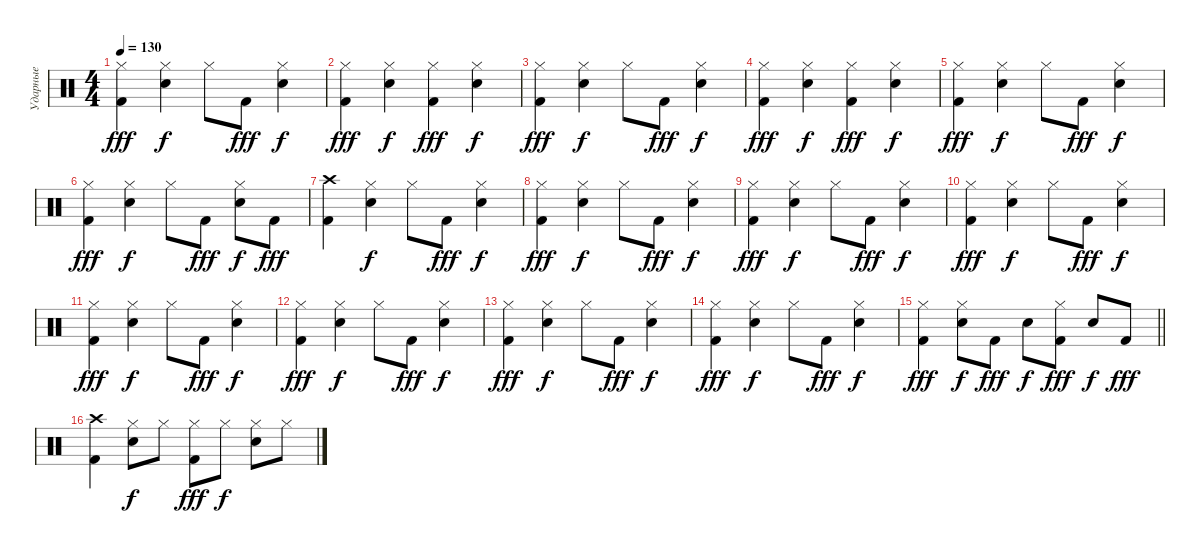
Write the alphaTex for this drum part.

\track ("Ударные" "Ударные") {instrument percussion}
\staff {score}
\articulation defaults
\ts (4 4)
\tempo 130
\clef neutral
\ks c
("Kick (hit) 2" "Hi-Hat (closed)").4{dy fff} ("Snare (hit) 2" "Hi-Hat (closed)").4{dy f} "Hi-Hat (closed)".8 "Kick (hit) 2".8{dy fff} ("Snare (hit) 2" "Hi-Hat (closed)").4{dy f} |
("Kick (hit) 2" "Hi-Hat (closed)").4{dy fff} ("Snare (hit) 2" "Hi-Hat (closed)").4{dy f} ("Kick (hit) 2" "Hi-Hat (closed)").4{dy fff} ("Snare (hit) 2" "Hi-Hat (closed)").4{dy f} |
("Kick (hit) 2" "Hi-Hat (closed)").4{dy fff} ("Snare (hit) 2" "Hi-Hat (closed)").4{dy f} "Hi-Hat (closed)".8 "Kick (hit) 2".8{dy fff} ("Snare (hit) 2" "Hi-Hat (closed)").4{dy f} |
("Kick (hit) 2" "Hi-Hat (closed)").4{dy fff} ("Snare (hit) 2" "Hi-Hat (closed)").4{dy f} ("Kick (hit) 2" "Hi-Hat (closed)").4{dy fff} ("Snare (hit) 2" "Hi-Hat (closed)").4{dy f} |
("Kick (hit) 2" "Hi-Hat (closed)").4{dy fff} ("Snare (hit) 2" "Hi-Hat (closed)").4{dy f} "Hi-Hat (closed)".8 "Kick (hit) 2".8{dy fff} ("Snare (hit) 2" "Hi-Hat (closed)").4{dy f} |
("Kick (hit) 2" "Hi-Hat (closed)").4{dy fff} ("Snare (hit) 2" "Hi-Hat (closed)").4{dy f} "Hi-Hat (closed)".8 "Kick (hit) 2".8{dy fff} ("Snare (hit) 2" "Hi-Hat (closed)").8{dy f} "Kick (hit) 2".8{dy fff} |
("Kick (hit) 2" "Crash high (hit)").4 ("Snare (hit) 2" "Hi-Hat (closed)").4{dy f} "Hi-Hat (closed)".8 "Kick (hit) 2".8{dy fff} ("Snare (hit) 2" "Hi-Hat (closed)").4{dy f} |
("Kick (hit) 2" "Hi-Hat (closed)").4{dy fff} ("Snare (hit) 2" "Hi-Hat (closed)").4{dy f} "Hi-Hat (closed)".8 "Kick (hit) 2".8{dy fff} ("Snare (hit) 2" "Hi-Hat (closed)").4{dy f} |
("Kick (hit) 2" "Hi-Hat (closed)").4{dy fff} ("Snare (hit) 2" "Hi-Hat (closed)").4{dy f} "Hi-Hat (closed)".8 "Kick (hit) 2".8{dy fff} ("Snare (hit) 2" "Hi-Hat (closed)").4{dy f} |
("Kick (hit) 2" "Hi-Hat (closed)").4{dy fff} ("Snare (hit) 2" "Hi-Hat (closed)").4{dy f} "Hi-Hat (closed)".8 "Kick (hit) 2".8{dy fff} ("Snare (hit) 2" "Hi-Hat (closed)").4{dy f} |
("Kick (hit) 2" "Hi-Hat (closed)").4{dy fff} ("Snare (hit) 2" "Hi-Hat (closed)").4{dy f} "Hi-Hat (closed)".8 "Kick (hit) 2".8{dy fff} ("Snare (hit) 2" "Hi-Hat (closed)").4{dy f} |
("Kick (hit) 2" "Hi-Hat (closed)").4{dy fff} ("Snare (hit) 2" "Hi-Hat (closed)").4{dy f} "Hi-Hat (closed)".8 "Kick (hit) 2".8{dy fff} ("Snare (hit) 2" "Hi-Hat (closed)").4{dy f} |
("Kick (hit) 2" "Hi-Hat (closed)").4{dy fff} ("Snare (hit) 2" "Hi-Hat (closed)").4{dy f} "Hi-Hat (closed)".8 "Kick (hit) 2".8{dy fff} ("Snare (hit) 2" "Hi-Hat (closed)").4{dy f} |
("Kick (hit) 2" "Hi-Hat (closed)").4{dy fff} ("Snare (hit) 2" "Hi-Hat (closed)").4{dy f} "Hi-Hat (closed)".8 "Kick (hit) 2".8{dy fff} ("Snare (hit) 2" "Hi-Hat (closed)").4{dy f} |
\barLineRight lightlight
("Kick (hit) 2" "Hi-Hat (closed)").4{dy fff} ("Snare (hit) 2" "Hi-Hat (closed)").8{dy f} "Kick (hit) 2".8{dy fff} "Snare (hit) 2".8{dy f} ("Kick (hit) 2" "Hi-Hat (closed)").8{dy fff} "Snare (hit) 2".8{dy f} "Kick (hit) 2".8{dy fff} |
("Kick (hit) 2" "Crash high (hit)").4 ("Snare (hit) 2" "Hi-Hat (closed)").8{dy f} "Hi-Hat (closed)".8 ("Kick (hit) 2" "Hi-Hat (closed)").8{dy fff} "Hi-Hat (closed)".8{dy f} ("Snare (hit) 2" "Hi-Hat (closed)").8 "Hi-Hat (closed)".8
